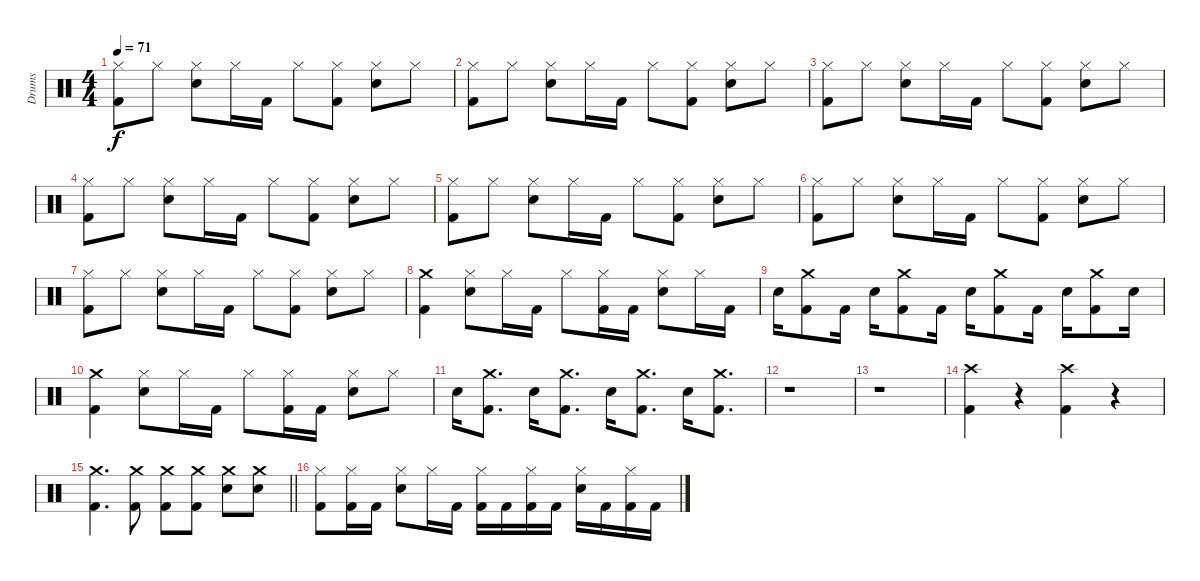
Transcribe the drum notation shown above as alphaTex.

\track ("Drums" "Drums") {instrument percussion}
\staff {score}
\articulation defaults
\ts (4 4)
\tempo 71
\clef neutral
\ks c
("Hi-Hat (closed)" "Kick (hit) 2").8{dy f} "Hi-Hat (closed)".8 ("Hi-Hat (closed)" "Snare (hit) 2").8 "Hi-Hat (closed)".16 "Kick (hit) 2".16 "Hi-Hat (closed)".8 ("Kick (hit) 2" "Hi-Hat (closed)").8 ("Hi-Hat (closed)" "Snare (hit) 2").8 "Hi-Hat (closed)".8 |
("Hi-Hat (closed)" "Kick (hit) 2").8 "Hi-Hat (closed)".8 ("Hi-Hat (closed)" "Snare (hit) 2").8 "Hi-Hat (closed)".16 "Kick (hit) 2".16 "Hi-Hat (closed)".8 ("Kick (hit) 2" "Hi-Hat (closed)").8 ("Hi-Hat (closed)" "Snare (hit) 2").8 "Hi-Hat (closed)".8 |
("Hi-Hat (closed)" "Kick (hit) 2").8 "Hi-Hat (closed)".8 ("Hi-Hat (closed)" "Snare (hit) 2").8 "Hi-Hat (closed)".16 "Kick (hit) 2".16 "Hi-Hat (closed)".8 ("Kick (hit) 2" "Hi-Hat (closed)").8 ("Hi-Hat (closed)" "Snare (hit) 2").8 "Hi-Hat (closed)".8 |
("Hi-Hat (closed)" "Kick (hit) 2").8 "Hi-Hat (closed)".8 ("Hi-Hat (closed)" "Snare (hit) 2").8 "Hi-Hat (closed)".16 "Kick (hit) 2".16 "Hi-Hat (closed)".8 ("Kick (hit) 2" "Hi-Hat (closed)").8 ("Hi-Hat (closed)" "Snare (hit) 2").8 "Hi-Hat (closed)".8 |
("Hi-Hat (closed)" "Kick (hit) 2").8 "Hi-Hat (closed)".8 ("Hi-Hat (closed)" "Snare (hit) 2").8 "Hi-Hat (closed)".16 "Kick (hit) 2".16 "Hi-Hat (closed)".8 ("Kick (hit) 2" "Hi-Hat (closed)").8 ("Hi-Hat (closed)" "Snare (hit) 2").8 "Hi-Hat (closed)".8 |
("Hi-Hat (closed)" "Kick (hit) 2").8 "Hi-Hat (closed)".8 ("Hi-Hat (closed)" "Snare (hit) 2").8 "Hi-Hat (closed)".16 "Kick (hit) 2".16 "Hi-Hat (closed)".8 ("Kick (hit) 2" "Hi-Hat (closed)").8 ("Hi-Hat (closed)" "Snare (hit) 2").8 "Hi-Hat (closed)".8 |
("Hi-Hat (closed)" "Kick (hit) 2").8 "Hi-Hat (closed)".8 ("Hi-Hat (closed)" "Snare (hit) 2").8 "Hi-Hat (closed)".16 "Kick (hit) 2".16 "Hi-Hat (closed)".8 ("Kick (hit) 2" "Hi-Hat (closed)").8 ("Hi-Hat (closed)" "Snare (hit) 2").8 "Hi-Hat (closed)".8 |
("Crash medium (hit)" "Kick (hit) 2").4 ("Snare (hit) 2" "Hi-Hat (closed)").8 "Hi-Hat (closed)".16 "Kick (hit) 2".16 "Hi-Hat (closed)".8 ("Hi-Hat (closed)" "Kick (hit) 2").16 "Kick (hit) 2".16 ("Hi-Hat (closed)" "Snare (hit) 2").8 "Hi-Hat (closed)".16 "Kick (hit) 2".16 |
"Snare (hit) 2".16 ("Crash medium (hit)" "Kick (hit) 2").8 "Kick (hit) 2".16 "Snare (hit) 2".16 ("Crash medium (hit)" "Kick (hit) 2").8 "Kick (hit) 2".16 "Snare (hit) 2".16 ("Crash medium (hit)" "Kick (hit) 2").8 "Kick (hit) 2".16 "Snare (hit) 2".16 ("Crash medium (hit)" "Kick (hit) 2").8 "Snare (hit) 2".16 |
("Kick (hit) 2" "Crash medium (hit)").4 ("Hi-Hat (closed)" "Snare (hit) 2").8 "Hi-Hat (closed)".16 "Kick (hit) 2".16 "Hi-Hat (closed)".8 ("Kick (hit) 2" "Hi-Hat (closed)").16 "Kick (hit) 2".16 ("Hi-Hat (closed)" "Snare (hit) 2").8 "Hi-Hat (closed)".8 |
"Snare (hit) 2".16 ("Crash medium (hit)" "Kick (hit) 2").8{d} "Snare (hit) 2".16 ("Crash medium (hit)" "Kick (hit) 2").8{d} "Snare (hit) 2".16 ("Crash medium (hit)" "Kick (hit) 2").8{d} "Snare (hit) 2".16 ("Crash medium (hit)" "Kick (hit) 2").8{d} |
r.1 |
r.1 |
("Crash high (hit)" "Kick (hit) 2").4 r.4 ("Crash high (hit)" "Kick (hit) 2").4 r.4 |
\barLineRight lightlight
("Crash medium (hit)" "Kick (hit) 2").4{d} ("Kick (hit) 2" "Crash medium (hit)").8 ("Kick (hit) 2" "Crash medium (hit)").8 ("Kick (hit) 2" "Crash medium (hit)").8 ("Snare (hit) 2" "Crash medium (hit)").8 ("Snare (hit) 2" "Crash medium (hit)").8 |
("Hi-Hat (closed)" "Kick (hit) 2").8 ("Hi-Hat (closed)" "Kick (hit) 2").16 "Kick (hit) 2".16 ("Hi-Hat (closed)" "Snare (hit) 2").8 "Hi-Hat (closed)".16 "Kick (hit) 2".16 ("Hi-Hat (closed)" "Kick (hit) 2").16 "Kick (hit) 2".16 ("Hi-Hat (closed)" "Kick (hit) 2").16 "Kick (hit) 2".16 ("Hi-Hat (closed)" "Snare (hit) 2").16 "Kick (hit) 2".16 ("Hi-Hat (closed)" "Kick (hit) 2").16 "Kick (hit) 2".16
